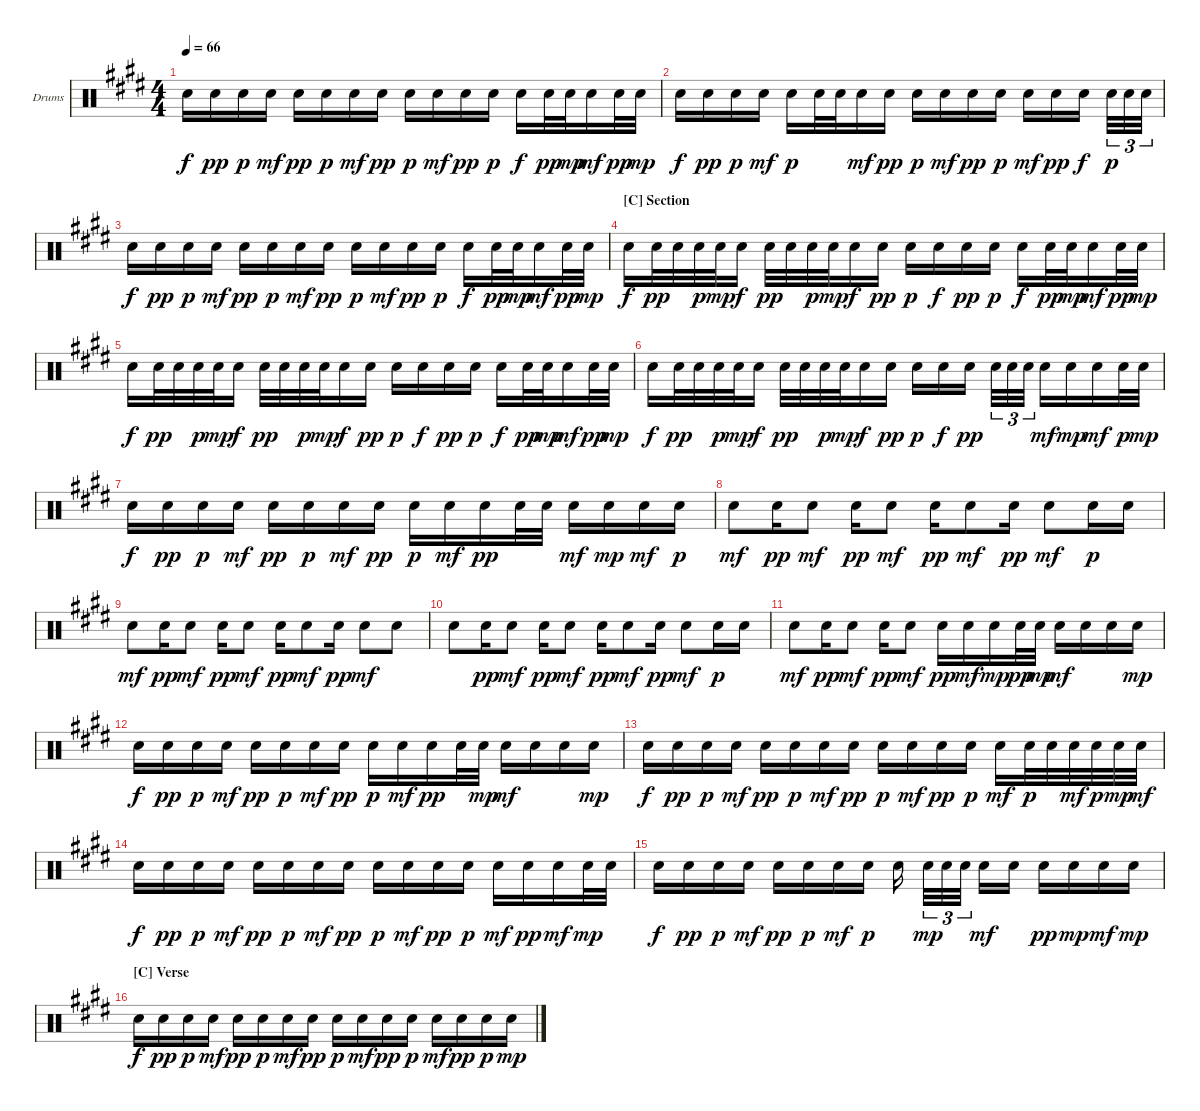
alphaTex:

\defaultSystemsLayout 4
\bracketExtendMode groupsimilarinstruments
\firstSystemTrackNameOrientation horizontal
\otherSystemsTrackNameOrientation horizontal
\track ("Drumkit" "Drums") {instrument percussion}
\staff {score}
\articulation defaults
\ts (4 4)
\tempo 66
\clef neutral
\ks c#minor "Snare (hit) 2".16{dy f} "Snare (hit) 2".16{dy pp} "Snare (hit) 2".16{dy p} "Snare (hit) 2".16{dy mf} "Snare (hit) 2".16{dy pp} "Snare (hit) 2".16{dy p} "Snare (hit) 2".16{dy mf} "Snare (hit) 2".16{dy pp} "Snare (hit) 2".16{dy p} "Snare (hit) 2".16{dy mf} "Snare (hit) 2".16{dy pp} "Snare (hit) 2".16{dy p} "Snare (hit) 2".16{dy f} "Snare (hit) 2".32{dy pp} "Snare (hit) 2".32{dy mp} "Snare (hit) 2".16{dy mf} "Snare (hit) 2".32{dy pp} "Snare (hit) 2".32{dy mp}
|
"Snare (hit) 2".16{dy f} "Snare (hit) 2".16{dy pp} "Snare (hit) 2".16{dy p} "Snare (hit) 2".16{dy mf} "Snare (hit) 2".16{dy p} "Snare (hit) 2".32 "Snare (hit) 2".32 "Snare (hit) 2".16{dy mf} "Snare (hit) 2".16{dy pp} "Snare (hit) 2".16{dy p} "Snare (hit) 2".16{dy mf} "Snare (hit) 2".16{dy pp} "Snare (hit) 2".16{dy p} "Snare (hit) 2".16{dy mf} "Snare (hit) 2".16{dy pp} "Snare (hit) 2".16{dy f} "Snare (hit) 2".32{tu (3 2) dy p} "Snare (hit) 2".32{tu (3 2)} "Snare (hit) 2".32{tu (3 2)} |
"Snare (hit) 2".16{dy f} "Snare (hit) 2".16{dy pp} "Snare (hit) 2".16{dy p} "Snare (hit) 2".16{dy mf} "Snare (hit) 2".16{dy pp} "Snare (hit) 2".16{dy p} "Snare (hit) 2".16{dy mf} "Snare (hit) 2".16{dy pp} "Snare (hit) 2".16{dy p} "Snare (hit) 2".16{dy mf} "Snare (hit) 2".16{dy pp} "Snare (hit) 2".16{dy p} "Snare (hit) 2".16{dy f} "Snare (hit) 2".32{dy pp} "Snare (hit) 2".32{dy mp} "Snare (hit) 2".16{dy mf} "Snare (hit) 2".32{dy pp} "Snare (hit) 2".32{dy mp} |
\section ("C" "Section")
\scale
0.539157 "Snare (hit) 2".16{dy f} "Snare (hit) 2".32{dy pp} "Snare (hit) 2".32 "Snare (hit) 2".32{dy p} "Snare (hit) 2".32{dy mp} "Snare (hit) 2".16{dy f} "Snare (hit) 2".32{dy pp} "Snare (hit) 2".32 "Snare (hit) 2".32{dy p} "Snare (hit) 2".32{dy mp} "Snare (hit) 2".16{dy f} "Snare (hit) 2".16{dy pp} "Snare (hit) 2".16{dy p} "Snare (hit) 2".16{dy f} "Snare (hit) 2".16{dy pp} "Snare (hit) 2".16{dy p} "Snare (hit) 2".16{dy f} "Snare (hit) 2".32{dy pp} "Snare (hit) 2".32{dy mp} "Snare (hit) 2".16{dy mf} "Snare (hit) 2".32{dy pp} "Snare (hit) 2".32{dy mp} |
\scale
0.460843 "Snare (hit) 2".16{dy f} "Snare (hit) 2".32{dy pp} "Snare (hit) 2".32 "Snare (hit) 2".32{dy p} "Snare (hit) 2".32{dy mp} "Snare (hit) 2".16{dy f} "Snare (hit) 2".32{dy pp} "Snare (hit) 2".32 "Snare (hit) 2".32{dy p} "Snare (hit) 2".32{dy mp} "Snare (hit) 2".16{dy f} "Snare (hit) 2".16{dy pp} "Snare (hit) 2".16{dy p} "Snare (hit) 2".16{dy f} "Snare (hit) 2".16{dy pp} "Snare (hit) 2".16{dy p} "Snare (hit) 2".16{dy f} "Snare (hit) 2".32{dy pp} "Snare (hit) 2".32{dy mp} "Snare (hit) 2".16{dy mf} "Snare (hit) 2".32{dy pp} "Snare (hit) 2".32{dy mp} |
"Snare (hit) 2".16{dy f} "Snare (hit) 2".32{dy pp} "Snare (hit) 2".32 "Snare (hit) 2".32{dy p} "Snare (hit) 2".32{dy mp} "Snare (hit) 2".16{dy f} "Snare (hit) 2".32{dy pp} "Snare (hit) 2".32 "Snare (hit) 2".32{dy p} "Snare (hit) 2".32{dy mp} "Snare (hit) 2".16{dy f} "Snare (hit) 2".16{dy pp} "Snare (hit) 2".16{dy p} "Snare (hit) 2".16{dy f} "Snare (hit) 2".16{dy pp} "Snare (hit) 2".32{tu (3 2)} "Snare (hit) 2".32{tu (3 2)} "Snare (hit) 2".32{tu (3 2)} "Snare (hit) 2".16{dy mf} "Snare (hit) 2".16{dy mp} "Snare (hit) 2".16{dy mf} "Snare (hit) 2".32{dy p} "Snare (hit) 2".32{dy mp} |
"Snare (hit) 2".16{dy f} "Snare (hit) 2".16{dy pp} "Snare (hit) 2".16{dy p} "Snare (hit) 2".16{dy mf} "Snare (hit) 2".16{dy pp} "Snare (hit) 2".16{dy p} "Snare (hit) 2".16{dy mf} "Snare (hit) 2".16{dy pp} "Snare (hit) 2".16{dy p} "Snare (hit) 2".16{dy mf} "Snare (hit) 2".16{dy pp} "Snare (hit) 2".32 "Snare (hit) 2".32 "Snare (hit) 2".16{dy mf} "Snare (hit) 2".16{dy mp} "Snare (hit) 2".16{dy mf} "Snare (hit) 2".16{dy p} |
"Snare (hit) 2".8{dy mf} "Snare (hit) 2".16{dy pp} "Snare (hit) 2".8{dy mf} "Snare (hit) 2".16{dy pp} "Snare (hit) 2".8{dy mf} "Snare (hit) 2".16{dy pp} "Snare (hit) 2".8{dy mf} "Snare (hit) 2".16{dy pp} "Snare (hit) 2".8{dy mf} "Snare (hit) 2".16{dy p} "Snare (hit) 2".16 |
"Snare (hit) 2".8{dy mf} "Snare (hit) 2".16{dy pp} "Snare (hit) 2".8{dy mf} "Snare (hit) 2".16{dy pp} "Snare (hit) 2".8{dy mf} "Snare (hit) 2".16{dy pp} "Snare (hit) 2".8{dy mf} "Snare (hit) 2".16{dy pp} "Snare (hit) 2".8{dy mf} "Snare (hit) 2".8 |
"Snare (hit) 2".8 "Snare (hit) 2".16{dy pp} "Snare (hit) 2".8{dy mf} "Snare (hit) 2".16{dy pp} "Snare (hit) 2".8{dy mf} "Snare (hit) 2".16{dy pp} "Snare (hit) 2".8{dy mf} "Snare (hit) 2".16{dy pp} "Snare (hit) 2".8{dy mf} "Snare (hit) 2".16{dy p} "Snare (hit) 2".16 |
"Snare (hit) 2".8{dy mf} "Snare (hit) 2".16{dy pp} "Snare (hit) 2".8{dy mf} "Snare (hit) 2".16{dy pp} "Snare (hit) 2".8{dy mf} "Snare (hit) 2".16{dy pp} "Snare (hit) 2".16{dy mf} "Snare (hit) 2".16{dy mp} "Snare (hit) 2".32{dy pp} "Snare (hit) 2".32{dy mp} "Snare (hit) 2".16{dy mf} "Snare (hit) 2".16 "Snare (hit) 2".16 "Snare (hit) 2".16{dy mp} |
"Snare (hit) 2".16{dy f} "Snare (hit) 2".16{dy pp} "Snare (hit) 2".16{dy p} "Snare (hit) 2".16{dy mf} "Snare (hit) 2".16{dy pp} "Snare (hit) 2".16{dy p} "Snare (hit) 2".16{dy mf} "Snare (hit) 2".16{dy pp} "Snare (hit) 2".16{dy p} "Snare (hit) 2".16{dy mf} "Snare (hit) 2".16{dy pp} "Snare (hit) 2".32 "Snare (hit) 2".32{dy mp} "Snare (hit) 2".16{dy mf} "Snare (hit) 2".16 "Snare (hit) 2".16 "Snare (hit) 2".16{dy mp} |
"Snare (hit) 2".16{dy f} "Snare (hit) 2".16{dy pp} "Snare (hit) 2".16{dy p} "Snare (hit) 2".16{dy mf} "Snare (hit) 2".16{dy pp} "Snare (hit) 2".16{dy p} "Snare (hit) 2".16{dy mf} "Snare (hit) 2".16{dy pp} "Snare (hit) 2".16{dy p} "Snare (hit) 2".16{dy mf} "Snare (hit) 2".16{dy pp} "Snare (hit) 2".16{dy p} "Snare (hit) 2".16{dy mf} "Snare (hit) 2".32{dy p} "Snare (hit) 2".32 "Snare (hit) 2".32{dy mf} "Snare (hit) 2".32{dy p} "Snare (hit) 2".32{dy mp} "Snare (hit) 2".32{dy mf} |
"Snare (hit) 2".16{dy f} "Snare (hit) 2".16{dy pp} "Snare (hit) 2".16{dy p} "Snare (hit) 2".16{dy mf} "Snare (hit) 2".16{dy pp} "Snare (hit) 2".16{dy p} "Snare (hit) 2".16{dy mf} "Snare (hit) 2".16{dy pp} "Snare (hit) 2".16{dy p} "Snare (hit) 2".16{dy mf} "Snare (hit) 2".16{dy pp} "Snare (hit) 2".16{dy p} "Snare (hit) 2".16{dy mf} "Snare (hit) 2".16{dy pp} "Snare (hit) 2".16{dy mf} "Snare (hit) 2".32{dy mp} "Snare (hit) 2".32 |
"Snare (hit) 2".16{dy f} "Snare (hit) 2".16{dy pp} "Snare (hit) 2".16{dy p} "Snare (hit) 2".16{dy mf} "Snare (hit) 2".16{dy pp} "Snare (hit) 2".16{dy p} "Snare (hit) 2".16{dy mf} "Snare (hit) 2".16{dy p} "Snare (hit) 2".16 "Snare (hit) 2".32{tu (3 2) dy mp} "Snare (hit) 2".32{tu (3 2)} "Snare (hit) 2".32{tu (3 2)} "Snare (hit) 2".16{dy mf} "Snare (hit) 2".16 "Snare (hit) 2".16{dy pp} "Snare (hit) 2".16{dy mp} "Snare (hit) 2".16{dy mf} "Snare (hit) 2".16{dy mp} |
\section ("C" "Verse")
"Snare (hit) 2".16{dy f} "Snare (hit) 2".16{dy pp} "Snare (hit) 2".16{dy p} "Snare (hit) 2".16{dy mf} "Snare (hit) 2".16{dy pp} "Snare (hit) 2".16{dy p} "Snare (hit) 2".16{dy mf} "Snare (hit) 2".16{dy pp} "Snare (hit) 2".16{dy p} "Snare (hit) 2".16{dy mf} "Snare (hit) 2".16{dy pp} "Snare (hit) 2".16{dy p} "Snare (hit) 2".16{dy mf} "Snare (hit) 2".16{dy pp} "Snare (hit) 2".16{dy p} "Snare (hit) 2".16{dy mp}
